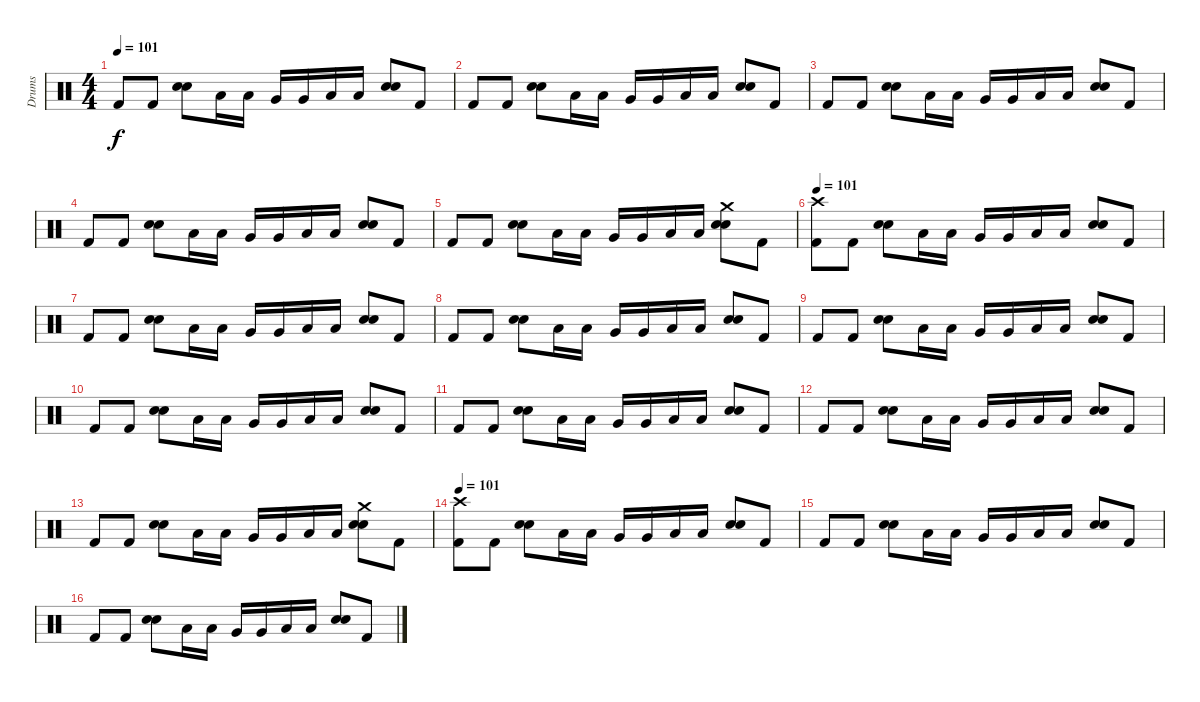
\track ("Drums" "Drums") {instrument percussion}
\staff {score}
\articulation defaults
\ts (4 4)
\tempo 101
\clef neutral
\ks c "Kick (hit) 2".8{dy f} "Kick (hit) 2".8
("Electric Snare (hit)" "Electric Snare (hit)").8 "Low Tom (hit)".16 "Low Tom (hit)".16 "Very Low Tom (hit)".16 "Very Low Tom (hit)".16 "Low Floor Tom (hit)".16 "Low Floor Tom (hit)".16 ("Electric Snare (hit)" "Electric Snare (hit)").8 "Kick (hit) 2".8 |
"Kick (hit) 2".8 "Kick (hit) 2".8 ("Electric Snare (hit)" "Electric Snare (hit)").8 "Low Tom (hit)".16 "Low Tom (hit)".16 "Very Low Tom (hit)".16 "Very Low Tom (hit)".16 "Low Floor Tom (hit)".16 "Low Floor Tom (hit)".16 ("Electric Snare (hit)" "Electric Snare (hit)").8 "Kick (hit) 2".8 |
"Kick (hit) 2".8 "Kick (hit) 2".8 ("Electric Snare (hit)" "Electric Snare (hit)").8 "Low Tom (hit)".16 "Low Tom (hit)".16 "Very Low Tom (hit)".16 "Very Low Tom (hit)".16 "Low Floor Tom (hit)".16 "Low Floor Tom (hit)".16 ("Electric Snare (hit)" "Electric Snare (hit)").8 "Kick (hit) 2".8 |
"Kick (hit) 2".8 "Kick (hit) 2".8 ("Electric Snare (hit)" "Electric Snare (hit)").8 "Low Tom (hit)".16 "Low Tom (hit)".16 "Very Low Tom (hit)".16 "Very Low Tom (hit)".16 "Low Floor Tom (hit)".16 "Low Floor Tom (hit)".16 ("Electric Snare (hit)" "Electric Snare (hit)").8 "Kick (hit) 2".8 |
"Kick (hit) 2".8 "Kick (hit) 2".8 ("Electric Snare (hit)" "Electric Snare (hit)").8 "Low Tom (hit)".16 "Low Tom (hit)".16 "Very Low Tom (hit)".16 "Very Low Tom (hit)".16 "Low Floor Tom (hit)".16 "Low Floor Tom (hit)".16 ("Crash medium (hit)" "Electric Snare (hit)" "Electric Snare (hit)").8 "Kick (hit) 2".8 |
\tempo 101
("Crash high (hit)" "Kick (hit) 2").8 "Kick (hit) 2".8 ("Electric Snare (hit)" "Electric Snare (hit)").8 "Low Tom (hit)".16 "Low Tom (hit)".16 "Very Low Tom (hit)".16 "Very Low Tom (hit)".16 "Low Floor Tom (hit)".16 "Low Floor Tom (hit)".16 ("Electric Snare (hit)" "Electric Snare (hit)").8 "Kick (hit) 2".8 |
"Kick (hit) 2".8 "Kick (hit) 2".8 ("Electric Snare (hit)" "Electric Snare (hit)").8 "Low Tom (hit)".16 "Low Tom (hit)".16 "Very Low Tom (hit)".16 "Very Low Tom (hit)".16 "Low Floor Tom (hit)".16 "Low Floor Tom (hit)".16 ("Electric Snare (hit)" "Electric Snare (hit)").8 "Kick (hit) 2".8 |
"Kick (hit) 2".8 "Kick (hit) 2".8 ("Electric Snare (hit)" "Electric Snare (hit)").8 "Low Tom (hit)".16 "Low Tom (hit)".16 "Very Low Tom (hit)".16 "Very Low Tom (hit)".16 "Low Floor Tom (hit)".16 "Low Floor Tom (hit)".16 ("Electric Snare (hit)" "Electric Snare (hit)").8 "Kick (hit) 2".8 |
"Kick (hit) 2".8 "Kick (hit) 2".8 ("Electric Snare (hit)" "Electric Snare (hit)").8 "Low Tom (hit)".16 "Low Tom (hit)".16 "Very Low Tom (hit)".16 "Very Low Tom (hit)".16 "Low Floor Tom (hit)".16 "Low Floor Tom (hit)".16 ("Electric Snare (hit)" "Electric Snare (hit)").8 "Kick (hit) 2".8 |
"Kick (hit) 2".8 "Kick (hit) 2".8 ("Electric Snare (hit)" "Electric Snare (hit)").8 "Low Tom (hit)".16 "Low Tom (hit)".16 "Very Low Tom (hit)".16 "Very Low Tom (hit)".16 "Low Floor Tom (hit)".16 "Low Floor Tom (hit)".16 ("Electric Snare (hit)" "Electric Snare (hit)").8 "Kick (hit) 2".8 |
"Kick (hit) 2".8 "Kick (hit) 2".8 ("Electric Snare (hit)" "Electric Snare (hit)").8 "Low Tom (hit)".16 "Low Tom (hit)".16 "Very Low Tom (hit)".16 "Very Low Tom (hit)".16 "Low Floor Tom (hit)".16 "Low Floor Tom (hit)".16 ("Electric Snare (hit)" "Electric Snare (hit)").8 "Kick (hit) 2".8 |
"Kick (hit) 2".8 "Kick (hit) 2".8 ("Electric Snare (hit)" "Electric Snare (hit)").8 "Low Tom (hit)".16 "Low Tom (hit)".16 "Very Low Tom (hit)".16 "Very Low Tom (hit)".16 "Low Floor Tom (hit)".16 "Low Floor Tom (hit)".16 ("Electric Snare (hit)" "Electric Snare (hit)").8 "Kick (hit) 2".8 |
"Kick (hit) 2".8 "Kick (hit) 2".8 ("Electric Snare (hit)" "Electric Snare (hit)").8 "Low Tom (hit)".16 "Low Tom (hit)".16 "Very Low Tom (hit)".16 "Very Low Tom (hit)".16 "Low Floor Tom (hit)".16 "Low Floor Tom (hit)".16 ("Crash medium (hit)" "Electric Snare (hit)" "Electric Snare (hit)").8 "Kick (hit) 2".8 |
\tempo 101
("Crash high (hit)" "Kick (hit) 2").8 "Kick (hit) 2".8 ("Electric Snare (hit)" "Electric Snare (hit)").8 "Low Tom (hit)".16 "Low Tom (hit)".16 "Very Low Tom (hit)".16 "Very Low Tom (hit)".16 "Low Floor Tom (hit)".16 "Low Floor Tom (hit)".16 ("Electric Snare (hit)" "Electric Snare (hit)").8 "Kick (hit) 2".8 |
"Kick (hit) 2".8 "Kick (hit) 2".8 ("Electric Snare (hit)" "Electric Snare (hit)").8 "Low Tom (hit)".16 "Low Tom (hit)".16 "Very Low Tom (hit)".16 "Very Low Tom (hit)".16 "Low Floor Tom (hit)".16 "Low Floor Tom (hit)".16 ("Electric Snare (hit)" "Electric Snare (hit)").8 "Kick (hit) 2".8 |
"Kick (hit) 2".8 "Kick (hit) 2".8 ("Electric Snare (hit)" "Electric Snare (hit)").8 "Low Tom (hit)".16 "Low Tom (hit)".16 "Very Low Tom (hit)".16 "Very Low Tom (hit)".16 "Low Floor Tom (hit)".16 "Low Floor Tom (hit)".16 ("Electric Snare (hit)" "Electric Snare (hit)").8 "Kick (hit) 2".8
